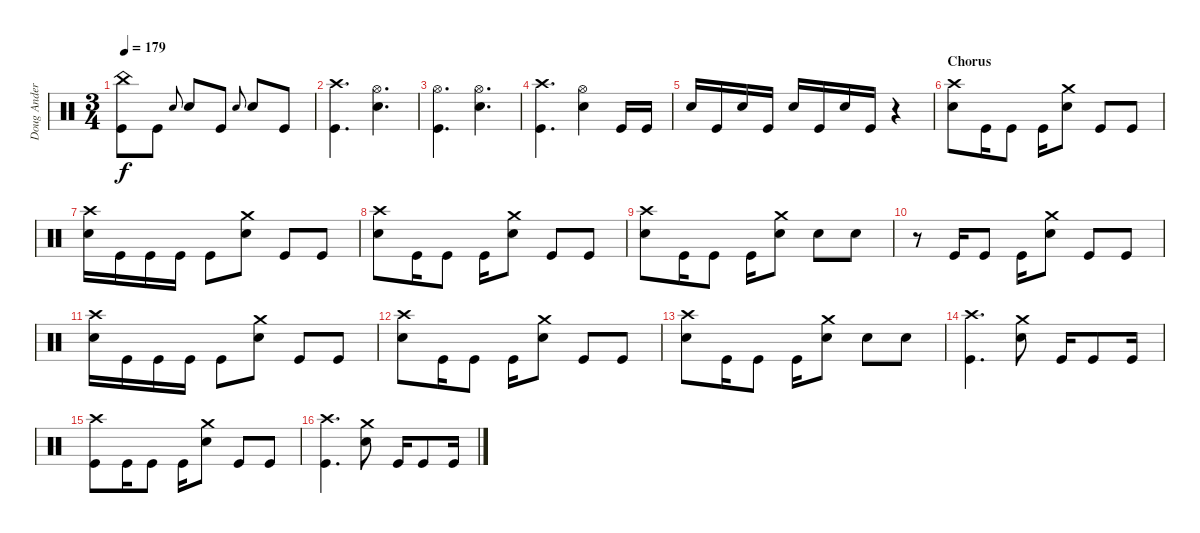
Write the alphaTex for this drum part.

\track ("Doug Anderson" "Doug Ander") {instrument percussion}
\staff {score}
\articulation defaults
\ts (3 4)
\tempo 179
\clef neutral
\ks c
("Kick (hit)" "China (hit)").8{dy f} "Kick (hit)".8 "Snare (hit)".8{gr onbeat} "Snare (hit) 2".8 "Kick (hit)".8 "Snare (hit)".8{gr onbeat} "Snare (hit) 2".8 "Kick (hit)".8 |
("Kick (hit)" "Crash high (hit)").4{d} ("Snare (hit) 2" "Hi-Hat (open)").4{d} |
("Kick (hit)" "Hi-Hat (open)").4{d} ("Snare (hit) 2" "Hi-Hat (open)").4{d} |
("Kick (hit)" "Crash high (hit)").4{d} ("Snare (hit) 2" "Hi-Hat (open)").4 "Kick (hit)".16 "Kick (hit)".16 |
"Snare (hit) 2".16 "Kick (hit)".16 "Snare (hit) 2".16 "Kick (hit)".16 "Snare (hit) 2".16 "Kick (hit)".16 "Snare (hit) 2".16 "Kick (hit)".16 r.4 |
\section ("" "Chorus")
("Snare (hit) 2" "Crash high (hit)").8 "Kick (hit)".16 "Kick (hit)".8 "Kick (hit)".16 ("Snare (hit) 2" "Crash medium (hit)").8 "Kick (hit)".8 "Kick (hit)".8 |
("Snare (hit) 2" "Crash high (hit)").16 "Kick (hit)".16 "Kick (hit)".16 "Kick (hit)".16 "Kick (hit)".8 ("Snare (hit) 2" "Crash medium (hit)").8 "Kick (hit)".8 "Kick (hit)".8 |
("Snare (hit) 2" "Crash high (hit)").8 "Kick (hit)".16 "Kick (hit)".8 "Kick (hit)".16 ("Snare (hit) 2" "Crash medium (hit)").8 "Kick (hit)".8 "Kick (hit)".8 |
("Snare (hit) 2" "Crash high (hit)").8 "Kick (hit)".16 "Kick (hit)".8 "Kick (hit)".16 ("Snare (hit) 2" "Crash medium (hit)").8 "Snare (hit) 2".8 "Snare (hit) 2".8 |
r.8 "Kick (hit)".16 "Kick (hit)".8 "Kick (hit)".16 ("Snare (hit) 2" "Crash medium (hit)").8 "Kick (hit)".8 "Kick (hit)".8 |
("Snare (hit) 2" "Crash high (hit)").16 "Kick (hit)".16 "Kick (hit)".16 "Kick (hit)".16 "Kick (hit)".8 ("Snare (hit) 2" "Crash medium (hit)").8 "Kick (hit)".8 "Kick (hit)".8 |
("Snare (hit) 2" "Crash high (hit)").8 "Kick (hit)".16 "Kick (hit)".8 "Kick (hit)".16 ("Snare (hit) 2" "Crash medium (hit)").8 "Kick (hit)".8 "Kick (hit)".8 |
("Snare (hit) 2" "Crash high (hit)").8 "Kick (hit)".16 "Kick (hit)".8 "Kick (hit)".16 ("Snare (hit) 2" "Crash medium (hit)").8 "Snare (hit) 2".8 "Snare (hit) 2".8 |
("Kick (hit)" "Crash high (hit)").4{d} ("Snare (hit) 2" "Crash medium (hit)").8 "Kick (hit)".16 "Kick (hit)".8 "Kick (hit)".16 |
("Kick (hit)" "Crash high (hit)").8 "Kick (hit)".16 "Kick (hit)".8 "Kick (hit)".16 ("Snare (hit) 2" "Crash medium (hit)").8 "Kick (hit)".8 "Kick (hit)".8 |
("Kick (hit)" "Crash high (hit)").4{d} ("Snare (hit) 2" "Crash medium (hit)").8 "Kick (hit)".16 "Kick (hit)".8 "Kick (hit)".16
